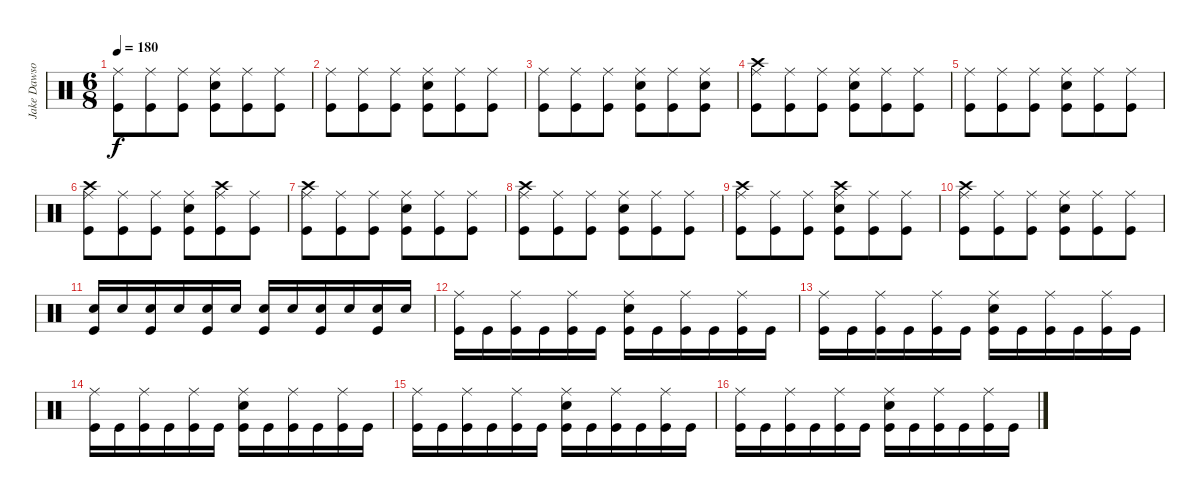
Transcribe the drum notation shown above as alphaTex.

\track ("Jake Dawson" "Jake Dawso") {instrument percussion}
\staff {score}
\articulation defaults
\ts (6 8)
\tempo 180
\clef neutral
\ks c
("Ride (middle)" "Kick (hit)").8{dy f} ("Ride (middle)" "Kick (hit)").8 ("Ride (middle)" "Kick (hit)").8 ("Ride (middle)" "Snare (hit) 2" "Kick (hit)").8 ("Ride (middle)" "Kick (hit)").8 ("Ride (middle)" "Kick (hit)").8 |
("Ride (middle)" "Kick (hit)").8 ("Ride (middle)" "Kick (hit)").8 ("Ride (middle)" "Kick (hit)").8 ("Ride (middle)" "Snare (hit) 2" "Kick (hit)").8 ("Ride (middle)" "Kick (hit)").8 ("Ride (middle)" "Kick (hit)").8 |
("Ride (middle)" "Kick (hit)").8 ("Ride (middle)" "Kick (hit)").8 ("Ride (middle)" "Kick (hit)").8 ("Ride (middle)" "Snare (hit) 2" "Kick (hit)").8 ("Ride (middle)" "Kick (hit)").8 ("Ride (middle)" "Snare (hit) 2" "Kick (hit)").8 |
("Crash high (hit)" "Ride (middle)" "Kick (hit)").8 ("Ride (middle)" "Kick (hit)").8 ("Ride (middle)" "Kick (hit)").8 ("Ride (middle)" "Snare (hit) 2" "Kick (hit)").8 ("Ride (middle)" "Kick (hit)").8 ("Ride (middle)" "Kick (hit)").8 |
("Ride (middle)" "Kick (hit)").8 ("Ride (middle)" "Kick (hit)").8 ("Ride (middle)" "Kick (hit)").8 ("Ride (middle)" "Snare (hit) 2" "Kick (hit)").8 ("Ride (middle)" "Kick (hit)").8 ("Ride (middle)" "Kick (hit)").8 |
("Crash high (hit)" "Ride (middle)" "Kick (hit)").8 ("Ride (middle)" "Kick (hit)").8 ("Ride (middle)" "Kick (hit)").8 ("Ride (middle)" "Snare (hit) 2" "Kick (hit)").8 ("Crash high (hit)" "Ride (middle)" "Kick (hit)").8 ("Ride (middle)" "Kick (hit)").8 |
("Crash high (hit)" "Ride (middle)" "Kick (hit)").8 ("Ride (middle)" "Kick (hit)").8 ("Ride (middle)" "Kick (hit)").8 ("Ride (middle)" "Snare (hit) 2" "Kick (hit)").8 ("Ride (middle)" "Kick (hit)").8 ("Ride (middle)" "Kick (hit)").8 |
("Crash high (hit)" "Ride (middle)" "Kick (hit)").8 ("Ride (middle)" "Kick (hit)").8 ("Ride (middle)" "Kick (hit)").8 ("Ride (middle)" "Snare (hit) 2" "Kick (hit)").8 ("Ride (middle)" "Kick (hit)").8 ("Ride (middle)" "Kick (hit)").8 |
("Crash high (hit)" "Ride (middle)" "Kick (hit)").8 ("Ride (middle)" "Kick (hit)").8 ("Ride (middle)" "Kick (hit)").8 ("Crash high (hit)" "Ride (middle)" "Snare (hit) 2" "Kick (hit)").8 ("Ride (middle)" "Kick (hit)").8 ("Ride (middle)" "Kick (hit)").8 |
("Crash high (hit)" "Ride (middle)" "Kick (hit)").8 ("Ride (middle)" "Kick (hit)").8 ("Ride (middle)" "Kick (hit)").8 ("Ride (middle)" "Snare (hit) 2" "Kick (hit)").8 ("Ride (middle)" "Kick (hit)").8 ("Ride (middle)" "Kick (hit)").8 |
("Snare (hit) 2" "Kick (hit)").16 "Snare (hit) 2".16 ("Snare (hit) 2" "Kick (hit)").16 "Snare (hit) 2".16 ("Snare (hit) 2" "Kick (hit)").16 "Snare (hit) 2".16 ("Snare (hit) 2" "Kick (hit)").16 "Snare (hit) 2".16 ("Snare (hit) 2" "Kick (hit)").16 "Snare (hit) 2".16 ("Snare (hit) 2" "Kick (hit)").16 "Snare (hit) 2".16 |
("Ride (middle)" "Kick (hit)").16 "Kick (hit)".16 ("Ride (middle)" "Kick (hit)").16 "Kick (hit)".16 ("Ride (middle)" "Kick (hit)").16 "Kick (hit)".16 ("Ride (middle)" "Snare (hit) 2" "Kick (hit)").16 "Kick (hit)".16 ("Ride (middle)" "Kick (hit)").16 "Kick (hit)".16 ("Ride (middle)" "Kick (hit)").16 "Kick (hit)".16 |
("Ride (middle)" "Kick (hit)").16 "Kick (hit)".16 ("Ride (middle)" "Kick (hit)").16 "Kick (hit)".16 ("Ride (middle)" "Kick (hit)").16 "Kick (hit)".16 ("Ride (middle)" "Snare (hit) 2" "Kick (hit)").16 "Kick (hit)".16 ("Ride (middle)" "Kick (hit)").16 "Kick (hit)".16 ("Ride (middle)" "Kick (hit)").16 "Kick (hit)".16 |
("Ride (middle)" "Kick (hit)").16 "Kick (hit)".16 ("Ride (middle)" "Kick (hit)").16 "Kick (hit)".16 ("Ride (middle)" "Kick (hit)").16 "Kick (hit)".16 ("Ride (middle)" "Snare (hit) 2" "Kick (hit)").16 "Kick (hit)".16 ("Ride (middle)" "Kick (hit)").16 "Kick (hit)".16 ("Ride (middle)" "Kick (hit)").16 "Kick (hit)".16 |
("Ride (middle)" "Kick (hit)").16 "Kick (hit)".16 ("Ride (middle)" "Kick (hit)").16 "Kick (hit)".16 ("Ride (middle)" "Kick (hit)").16 "Kick (hit)".16 ("Ride (middle)" "Snare (hit) 2" "Kick (hit)").16 "Kick (hit)".16 ("Ride (middle)" "Kick (hit)").16 "Kick (hit)".16 ("Ride (middle)" "Kick (hit)").16 "Kick (hit)".16 |
("Ride (middle)" "Kick (hit)").16 "Kick (hit)".16 ("Ride (middle)" "Kick (hit)").16 "Kick (hit)".16 ("Ride (middle)" "Kick (hit)").16 "Kick (hit)".16 ("Ride (middle)" "Snare (hit) 2" "Kick (hit)").16 "Kick (hit)".16 ("Ride (middle)" "Kick (hit)").16 "Kick (hit)".16 ("Ride (middle)" "Kick (hit)").16 "Kick (hit)".16
